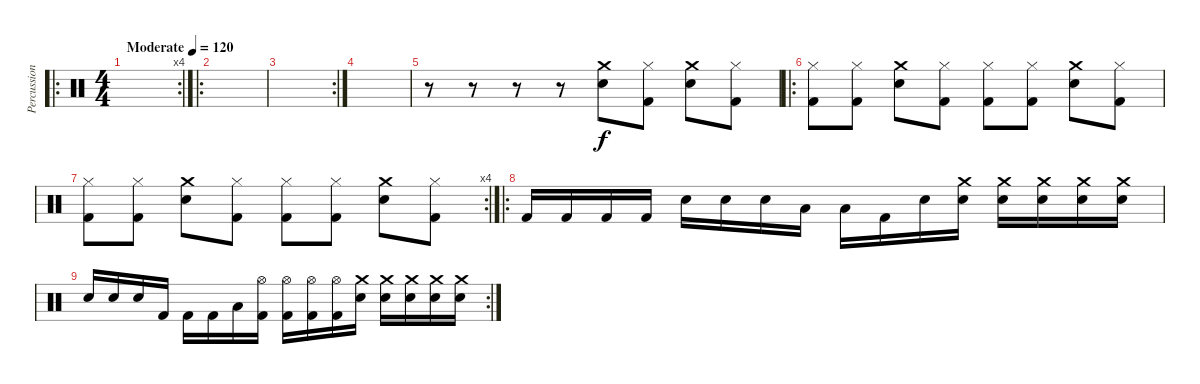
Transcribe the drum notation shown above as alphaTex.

\track ("Percussion" "Percussion") {instrument percussion}
\staff {score}
\articulation defaults
\ro
\rc 4
\ts (4 4)
\tempo (120 "Moderate")
\clef neutral
\ks c
|
\ro
|
\rc 2
|
|
r.8 r.8 r.8 r.8 ("Electric Snare (hit)" "Crash medium (hit)").8 ("Hi-Hat (closed)" "Kick (hit) 2").8 ("Electric Snare (hit)" "Crash medium (hit)").8 ("Hi-Hat (closed)" "Kick (hit) 2").8 |
\ro
("Hi-Hat (closed)" "Kick (hit) 2").8 ("Hi-Hat (closed)" "Kick (hit) 2").8 ("Electric Snare (hit)" "Crash medium (hit)").8 ("Hi-Hat (closed)" "Kick (hit) 2").8 ("Hi-Hat (closed)" "Kick (hit) 2").8 ("Hi-Hat (closed)" "Kick (hit) 2").8 ("Electric Snare (hit)" "Crash medium (hit)").8 ("Hi-Hat (closed)" "Kick (hit) 2").8 |
\rc 4
("Hi-Hat (closed)" "Kick (hit) 2").8 ("Hi-Hat (closed)" "Kick (hit) 2").8 ("Electric Snare (hit)" "Crash medium (hit)").8 ("Hi-Hat (closed)" "Kick (hit) 2").8 ("Hi-Hat (closed)" "Kick (hit) 2").8 ("Hi-Hat (closed)" "Kick (hit) 2").8 ("Electric Snare (hit)" "Crash medium (hit)").8 ("Hi-Hat (closed)" "Kick (hit) 2").8 |
\ro "Kick (hit) 2".16 "Kick (hit) 2".16 "Kick (hit) 2".16 "Kick (hit) 2".16 "Electric Snare (hit)".16 "Electric Snare (hit)".16 "Electric Snare (hit)".16 "Low Floor Tom (hit)".16 "Low Floor Tom (hit)".16 "Kick (hit) 2".16 "Electric Snare (hit)".16
("Electric Snare (hit)" "Crash medium (hit)").16 ("Electric Snare (hit)" "Crash medium (hit)").16 ("Electric Snare (hit)" "Crash medium (hit)").16 ("Electric Snare (hit)" "Crash medium (hit)").16 ("Electric Snare (hit)" "Crash medium (hit)").16 |
\rc 2 "Electric Snare (hit)".16 "Electric Snare (hit)".16 "Electric Snare (hit)".16 "Kick (hit) 2".16 "Kick (hit) 2".16 "Kick (hit) 2".16 "Low Floor Tom (hit)".16
("Hi-Hat (open)" "Kick (hit) 2").16 ("Hi-Hat (open)" "Kick (hit) 2").16 ("Hi-Hat (open)" "Kick (hit) 2").16 ("Hi-Hat (open)" "Kick (hit) 2").16 ("Crash medium (hit)" "Electric Snare (hit)").16 ("Crash medium (hit)" "Electric Snare (hit)").16 ("Crash medium (hit)" "Electric Snare (hit)").16 ("Crash medium (hit)" "Electric Snare (hit)").16 ("Crash medium (hit)" "Electric Snare (hit)").16
